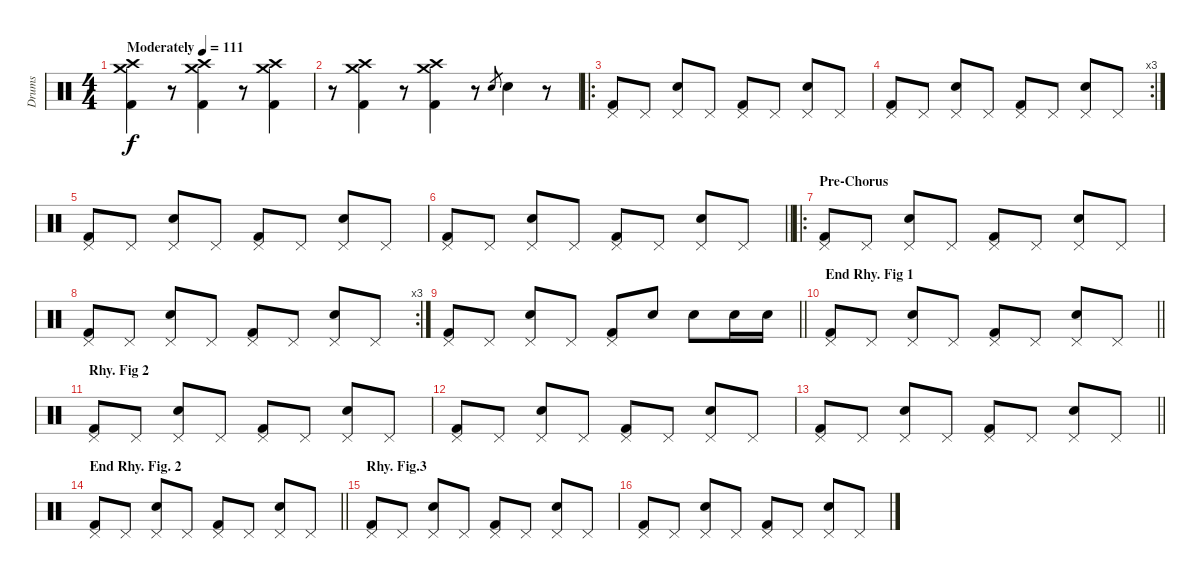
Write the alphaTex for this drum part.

\track ("Drums" "Drums") {instrument percussion}
\staff {score}
\articulation defaults
\ts (4 4)
\tempo (111 "Moderately")
\clef neutral
\ks c
("Crash high (hit)" "Crash medium (hit)" "Kick (hit) 2").4{dy f} r.8 ("Crash high (hit)" "Crash medium (hit)" "Kick (hit) 2").4 r.8 ("Crash high (hit)" "Crash medium (hit)" "Kick (hit) 2").4 |
r.8 ("Crash high (hit)" "Crash medium (hit)" "Kick (hit) 2").4 r.8 ("Crash high (hit)" "Crash medium (hit)" "Kick (hit) 2").4 r.8 "Snare (hit) 2".8{gr} "Snare (hit) 2".4 r.8 |
\ro
("Pedal Hi-Hat (hit)" "Kick (hit) 2").8 "Pedal Hi-Hat (hit)".8 ("Pedal Hi-Hat (hit)" "Snare (hit) 2").8 "Pedal Hi-Hat (hit)".8 ("Pedal Hi-Hat (hit)" "Kick (hit) 2").8 "Pedal Hi-Hat (hit)".8 ("Pedal Hi-Hat (hit)" "Snare (hit) 2").8 "Pedal Hi-Hat (hit)".8 |
\rc 3
("Pedal Hi-Hat (hit)" "Kick (hit) 2").8 "Pedal Hi-Hat (hit)".8 ("Pedal Hi-Hat (hit)" "Snare (hit) 2").8 "Pedal Hi-Hat (hit)".8 ("Pedal Hi-Hat (hit)" "Kick (hit) 2").8 "Pedal Hi-Hat (hit)".8 ("Pedal Hi-Hat (hit)" "Snare (hit) 2").8 "Pedal Hi-Hat (hit)".8 |
("Pedal Hi-Hat (hit)" "Kick (hit) 2").8 "Pedal Hi-Hat (hit)".8 ("Pedal Hi-Hat (hit)" "Snare (hit) 2").8 "Pedal Hi-Hat (hit)".8 ("Pedal Hi-Hat (hit)" "Kick (hit) 2").8 "Pedal Hi-Hat (hit)".8 ("Pedal Hi-Hat (hit)" "Snare (hit) 2").8 "Pedal Hi-Hat (hit)".8 |
\barLineRight lightlight
("Pedal Hi-Hat (hit)" "Kick (hit) 2").8 "Pedal Hi-Hat (hit)".8 ("Pedal Hi-Hat (hit)" "Snare (hit) 2").8 "Pedal Hi-Hat (hit)".8 ("Pedal Hi-Hat (hit)" "Kick (hit) 2").8 "Pedal Hi-Hat (hit)".8 ("Pedal Hi-Hat (hit)" "Snare (hit) 2").8 "Pedal Hi-Hat (hit)".8 |
\ro
\section ("" "Pre-Chorus")
("Pedal Hi-Hat (hit)" "Kick (hit) 2").8 "Pedal Hi-Hat (hit)".8 ("Pedal Hi-Hat (hit)" "Snare (hit) 2").8 "Pedal Hi-Hat (hit)".8 ("Pedal Hi-Hat (hit)" "Kick (hit) 2").8 "Pedal Hi-Hat (hit)".8 ("Pedal Hi-Hat (hit)" "Snare (hit) 2").8 "Pedal Hi-Hat (hit)".8 |
\rc 3
("Pedal Hi-Hat (hit)" "Kick (hit) 2").8 "Pedal Hi-Hat (hit)".8 ("Pedal Hi-Hat (hit)" "Snare (hit) 2").8 "Pedal Hi-Hat (hit)".8 ("Pedal Hi-Hat (hit)" "Kick (hit) 2").8 "Pedal Hi-Hat (hit)".8 ("Pedal Hi-Hat (hit)" "Snare (hit) 2").8 "Pedal Hi-Hat (hit)".8 |
\barLineRight lightlight
("Pedal Hi-Hat (hit)" "Kick (hit) 2").8 "Pedal Hi-Hat (hit)".8 ("Pedal Hi-Hat (hit)" "Snare (hit) 2").8 "Pedal Hi-Hat (hit)".8 ("Pedal Hi-Hat (hit)" "Kick (hit) 2").8 "Snare (hit) 2".8 "Snare (hit) 2".8 "Snare (hit) 2".16 "Snare (hit) 2".16 |
\section ("" "End Rhy. Fig 1")
\barLineRight lightlight
("Pedal Hi-Hat (hit)" "Kick (hit) 2").8 "Pedal Hi-Hat (hit)".8 ("Pedal Hi-Hat (hit)" "Snare (hit) 2").8 "Pedal Hi-Hat (hit)".8 ("Pedal Hi-Hat (hit)" "Kick (hit) 2").8 "Pedal Hi-Hat (hit)".8 ("Pedal Hi-Hat (hit)" "Snare (hit) 2").8 "Pedal Hi-Hat (hit)".8 |
\section ("" "Rhy. Fig 2")
("Pedal Hi-Hat (hit)" "Kick (hit) 2").8 "Pedal Hi-Hat (hit)".8 ("Pedal Hi-Hat (hit)" "Snare (hit) 2").8 "Pedal Hi-Hat (hit)".8 ("Pedal Hi-Hat (hit)" "Kick (hit) 2").8 "Pedal Hi-Hat (hit)".8 ("Pedal Hi-Hat (hit)" "Snare (hit) 2").8 "Pedal Hi-Hat (hit)".8 |
("Pedal Hi-Hat (hit)" "Kick (hit) 2").8 "Pedal Hi-Hat (hit)".8 ("Pedal Hi-Hat (hit)" "Snare (hit) 2").8 "Pedal Hi-Hat (hit)".8 ("Pedal Hi-Hat (hit)" "Kick (hit) 2").8 "Pedal Hi-Hat (hit)".8 ("Pedal Hi-Hat (hit)" "Snare (hit) 2").8 "Pedal Hi-Hat (hit)".8 |
\barLineRight lightlight
("Pedal Hi-Hat (hit)" "Kick (hit) 2").8 "Pedal Hi-Hat (hit)".8 ("Pedal Hi-Hat (hit)" "Snare (hit) 2").8 "Pedal Hi-Hat (hit)".8 ("Pedal Hi-Hat (hit)" "Kick (hit) 2").8 "Pedal Hi-Hat (hit)".8 ("Pedal Hi-Hat (hit)" "Snare (hit) 2").8 "Pedal Hi-Hat (hit)".8 |
\section ("" "End Rhy. Fig. 2")
\barLineRight lightlight
("Pedal Hi-Hat (hit)" "Kick (hit) 2").8 "Pedal Hi-Hat (hit)".8 ("Pedal Hi-Hat (hit)" "Snare (hit) 2").8 "Pedal Hi-Hat (hit)".8 ("Pedal Hi-Hat (hit)" "Kick (hit) 2").8 "Pedal Hi-Hat (hit)".8 ("Pedal Hi-Hat (hit)" "Snare (hit) 2").8 "Pedal Hi-Hat (hit)".8 |
\section ("" "Rhy. Fig.3")
("Pedal Hi-Hat (hit)" "Kick (hit) 2").8 "Pedal Hi-Hat (hit)".8 ("Pedal Hi-Hat (hit)" "Snare (hit) 2").8 "Pedal Hi-Hat (hit)".8 ("Pedal Hi-Hat (hit)" "Kick (hit) 2").8 "Pedal Hi-Hat (hit)".8 ("Pedal Hi-Hat (hit)" "Snare (hit) 2").8 "Pedal Hi-Hat (hit)".8 |
("Pedal Hi-Hat (hit)" "Kick (hit) 2").8 "Pedal Hi-Hat (hit)".8 ("Pedal Hi-Hat (hit)" "Snare (hit) 2").8 "Pedal Hi-Hat (hit)".8 ("Pedal Hi-Hat (hit)" "Kick (hit) 2").8 "Pedal Hi-Hat (hit)".8 ("Pedal Hi-Hat (hit)" "Snare (hit) 2").8 "Pedal Hi-Hat (hit)".8
